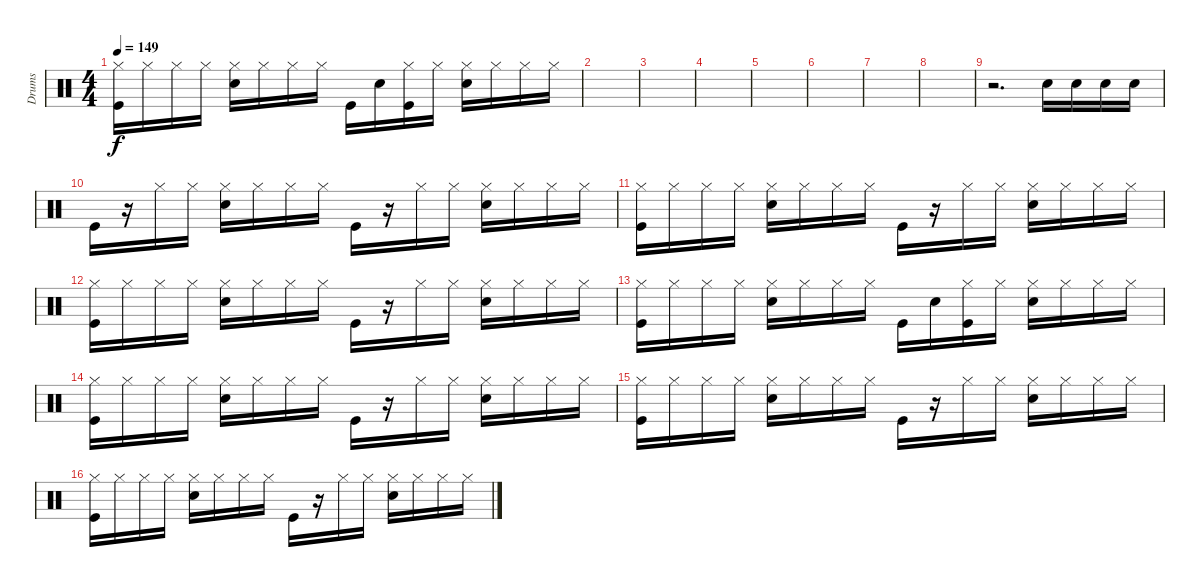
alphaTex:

\track ("Drums" "Drums") {instrument percussion}
\staff {score}
\articulation defaults
\ts (4 4)
\tempo 149
\clef neutral
\ks c
("Hi-Hat (closed)" "Kick (hit)").16{dy f} "Hi-Hat (closed)".16 "Hi-Hat (closed)".16 "Hi-Hat (closed)".16 ("Hi-Hat (closed)" "Snare (hit) 2").16 "Hi-Hat (closed)".16 "Hi-Hat (closed)".16 "Hi-Hat (closed)".16 "Kick (hit)".16 "Snare (hit) 2".16 ("Hi-Hat (closed)" "Kick (hit)").16 "Hi-Hat (closed)".16 ("Hi-Hat (closed)" "Snare (hit) 2").16 "Hi-Hat (closed)".16 "Hi-Hat (closed)".16 "Hi-Hat (closed)".16 |
|
|
|
|
|
|
|
r.2{d} "Snare (hit) 2".16 "Snare (hit) 2".16 "Snare (hit) 2".16 "Snare (hit) 2".16 |
"Kick (hit)".16 r.16 "Hi-Hat (closed)".16 "Hi-Hat (closed)".16 ("Hi-Hat (closed)" "Snare (hit) 2").16 "Hi-Hat (closed)".16 "Hi-Hat (closed)".16 "Hi-Hat (closed)".16 "Kick (hit)".16 r.16 "Hi-Hat (closed)".16 "Hi-Hat (closed)".16 ("Hi-Hat (closed)" "Snare (hit) 2").16 "Hi-Hat (closed)".16 "Hi-Hat (closed)".16 "Hi-Hat (closed)".16 |
("Hi-Hat (closed)" "Kick (hit)").16 "Hi-Hat (closed)".16 "Hi-Hat (closed)".16 "Hi-Hat (closed)".16 ("Hi-Hat (closed)" "Snare (hit) 2").16 "Hi-Hat (closed)".16 "Hi-Hat (closed)".16 "Hi-Hat (closed)".16 "Kick (hit)".16 r.16 "Hi-Hat (closed)".16 "Hi-Hat (closed)".16 ("Hi-Hat (closed)" "Snare (hit) 2").16 "Hi-Hat (closed)".16 "Hi-Hat (closed)".16 "Hi-Hat (closed)".16 |
("Hi-Hat (closed)" "Kick (hit)").16 "Hi-Hat (closed)".16 "Hi-Hat (closed)".16 "Hi-Hat (closed)".16 ("Hi-Hat (closed)" "Snare (hit) 2").16 "Hi-Hat (closed)".16 "Hi-Hat (closed)".16 "Hi-Hat (closed)".16 "Kick (hit)".16 r.16 "Hi-Hat (closed)".16 "Hi-Hat (closed)".16 ("Hi-Hat (closed)" "Snare (hit) 2").16 "Hi-Hat (closed)".16 "Hi-Hat (closed)".16 "Hi-Hat (closed)".16 |
("Hi-Hat (closed)" "Kick (hit)").16 "Hi-Hat (closed)".16 "Hi-Hat (closed)".16 "Hi-Hat (closed)".16 ("Hi-Hat (closed)" "Snare (hit) 2").16 "Hi-Hat (closed)".16 "Hi-Hat (closed)".16 "Hi-Hat (closed)".16 "Kick (hit)".16 "Snare (hit) 2".16 ("Hi-Hat (closed)" "Kick (hit)").16 "Hi-Hat (closed)".16 ("Hi-Hat (closed)" "Snare (hit) 2").16 "Hi-Hat (closed)".16 "Hi-Hat (closed)".16 "Hi-Hat (closed)".16 |
("Hi-Hat (closed)" "Kick (hit)").16 "Hi-Hat (closed)".16 "Hi-Hat (closed)".16 "Hi-Hat (closed)".16 ("Hi-Hat (closed)" "Snare (hit) 2").16 "Hi-Hat (closed)".16 "Hi-Hat (closed)".16 "Hi-Hat (closed)".16 "Kick (hit)".16 r.16 "Hi-Hat (closed)".16 "Hi-Hat (closed)".16 ("Hi-Hat (closed)" "Snare (hit) 2").16 "Hi-Hat (closed)".16 "Hi-Hat (closed)".16 "Hi-Hat (closed)".16 |
("Hi-Hat (closed)" "Kick (hit)").16 "Hi-Hat (closed)".16 "Hi-Hat (closed)".16 "Hi-Hat (closed)".16 ("Hi-Hat (closed)" "Snare (hit) 2").16 "Hi-Hat (closed)".16 "Hi-Hat (closed)".16 "Hi-Hat (closed)".16 "Kick (hit)".16 r.16 "Hi-Hat (closed)".16 "Hi-Hat (closed)".16 ("Hi-Hat (closed)" "Snare (hit) 2").16 "Hi-Hat (closed)".16 "Hi-Hat (closed)".16 "Hi-Hat (closed)".16 |
("Hi-Hat (closed)" "Kick (hit)").16 "Hi-Hat (closed)".16 "Hi-Hat (closed)".16 "Hi-Hat (closed)".16 ("Hi-Hat (closed)" "Snare (hit) 2").16 "Hi-Hat (closed)".16 "Hi-Hat (closed)".16 "Hi-Hat (closed)".16 "Kick (hit)".16 r.16 "Hi-Hat (closed)".16 "Hi-Hat (closed)".16 ("Hi-Hat (closed)" "Snare (hit) 2").16 "Hi-Hat (closed)".16 "Hi-Hat (closed)".16 "Hi-Hat (closed)".16
